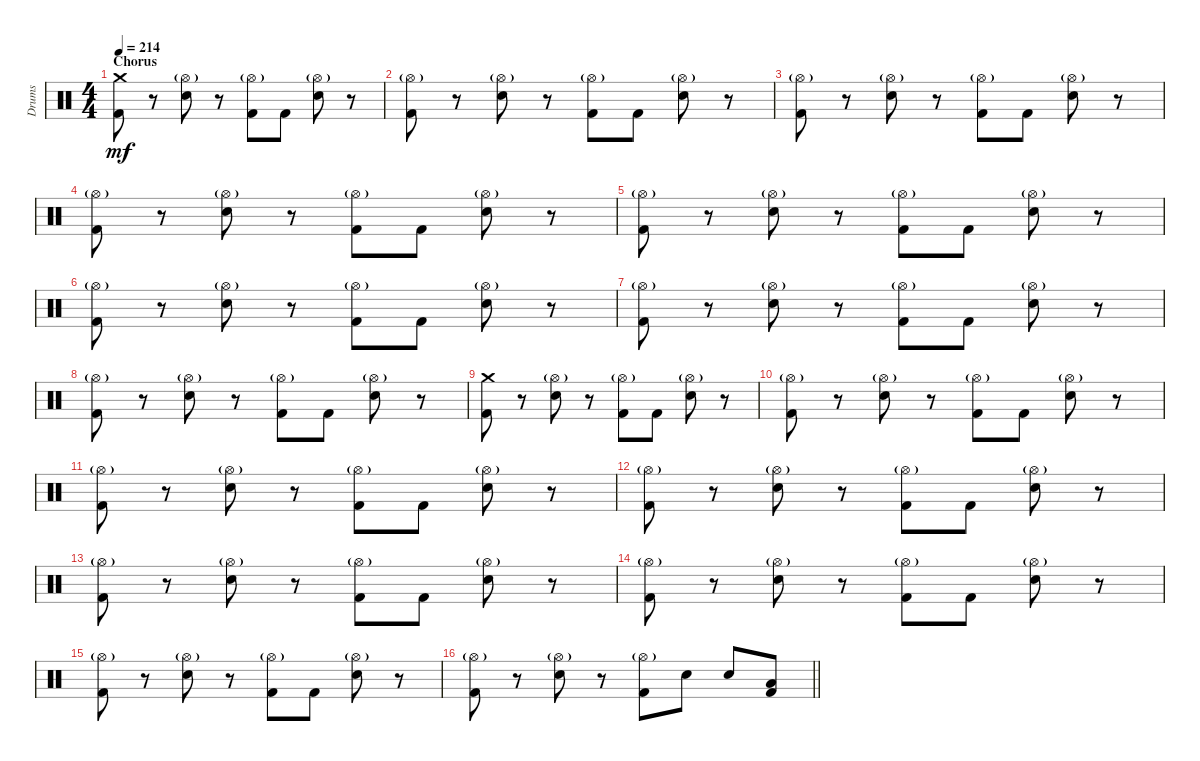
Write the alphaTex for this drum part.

\track ("Drums" "Drums") {instrument percussion}
\staff {score}
\articulation defaults
\ts (4 4)
\section ("" "Chorus")
\tempo 214
\clef neutral
\ks c
("Crash medium (hit)" "Kick (hit) 2").8{dy mf} r.8 ("Hi-Hat (open)"{g} "Snare (hit) 2").8 r.8 ("Hi-Hat (open)"{g} "Kick (hit) 2").8 "Kick (hit) 2".8 ("Hi-Hat (open)"{g} "Snare (hit) 2").8 r.8 |
("Hi-Hat (open)"{g} "Kick (hit) 2").8 r.8 ("Hi-Hat (open)"{g} "Snare (hit) 2").8 r.8 ("Hi-Hat (open)"{g} "Kick (hit) 2").8 "Kick (hit) 2".8 ("Hi-Hat (open)"{g} "Snare (hit) 2").8 r.8 |
("Hi-Hat (open)"{g} "Kick (hit) 2").8 r.8 ("Hi-Hat (open)"{g} "Snare (hit) 2").8 r.8 ("Hi-Hat (open)"{g} "Kick (hit) 2").8 "Kick (hit) 2".8 ("Hi-Hat (open)"{g} "Snare (hit) 2").8 r.8 |
("Hi-Hat (open)"{g} "Kick (hit) 2").8 r.8 ("Hi-Hat (open)"{g} "Snare (hit) 2").8 r.8 ("Hi-Hat (open)"{g} "Kick (hit) 2").8 "Kick (hit) 2".8 ("Hi-Hat (open)"{g} "Snare (hit) 2").8 r.8 |
("Hi-Hat (open)"{g} "Kick (hit) 2").8 r.8 ("Hi-Hat (open)"{g} "Snare (hit) 2").8 r.8 ("Hi-Hat (open)"{g} "Kick (hit) 2").8 "Kick (hit) 2".8 ("Hi-Hat (open)"{g} "Snare (hit) 2").8 r.8 |
("Hi-Hat (open)"{g} "Kick (hit) 2").8 r.8 ("Hi-Hat (open)"{g} "Snare (hit) 2").8 r.8 ("Hi-Hat (open)"{g} "Kick (hit) 2").8 "Kick (hit) 2".8 ("Hi-Hat (open)"{g} "Snare (hit) 2").8 r.8 |
("Hi-Hat (open)"{g} "Kick (hit) 2").8 r.8 ("Hi-Hat (open)"{g} "Snare (hit) 2").8 r.8 ("Hi-Hat (open)"{g} "Kick (hit) 2").8 "Kick (hit) 2".8 ("Hi-Hat (open)"{g} "Snare (hit) 2").8 r.8 |
("Hi-Hat (open)"{g} "Kick (hit) 2").8 r.8 ("Hi-Hat (open)"{g} "Snare (hit) 2").8 r.8 ("Hi-Hat (open)"{g} "Kick (hit) 2").8 "Kick (hit) 2".8 ("Hi-Hat (open)"{g} "Snare (hit) 2").8 r.8 |
("Crash medium (hit)" "Kick (hit) 2").8 r.8 ("Hi-Hat (open)"{g} "Snare (hit) 2").8 r.8 ("Hi-Hat (open)"{g} "Kick (hit) 2").8 "Kick (hit) 2".8 ("Hi-Hat (open)"{g} "Snare (hit) 2").8 r.8 |
("Hi-Hat (open)"{g} "Kick (hit) 2").8 r.8 ("Hi-Hat (open)"{g} "Snare (hit) 2").8 r.8 ("Hi-Hat (open)"{g} "Kick (hit) 2").8 "Kick (hit) 2".8 ("Hi-Hat (open)"{g} "Snare (hit) 2").8 r.8 |
("Hi-Hat (open)"{g} "Kick (hit) 2").8 r.8 ("Hi-Hat (open)"{g} "Snare (hit) 2").8 r.8 ("Hi-Hat (open)"{g} "Kick (hit) 2").8 "Kick (hit) 2".8 ("Hi-Hat (open)"{g} "Snare (hit) 2").8 r.8 |
("Hi-Hat (open)"{g} "Kick (hit) 2").8 r.8 ("Hi-Hat (open)"{g} "Snare (hit) 2").8 r.8 ("Hi-Hat (open)"{g} "Kick (hit) 2").8 "Kick (hit) 2".8 ("Hi-Hat (open)"{g} "Snare (hit) 2").8 r.8 |
("Hi-Hat (open)"{g} "Kick (hit) 2").8 r.8 ("Hi-Hat (open)"{g} "Snare (hit) 2").8 r.8 ("Hi-Hat (open)"{g} "Kick (hit) 2").8 "Kick (hit) 2".8 ("Hi-Hat (open)"{g} "Snare (hit) 2").8 r.8 |
("Hi-Hat (open)"{g} "Kick (hit) 2").8 r.8 ("Hi-Hat (open)"{g} "Snare (hit) 2").8 r.8 ("Hi-Hat (open)"{g} "Kick (hit) 2").8 "Kick (hit) 2".8 ("Hi-Hat (open)"{g} "Snare (hit) 2").8 r.8 |
("Hi-Hat (open)"{g} "Kick (hit) 2").8 r.8 ("Hi-Hat (open)"{g} "Snare (hit) 2").8 r.8 ("Hi-Hat (open)"{g} "Kick (hit) 2").8 "Kick (hit) 2".8 ("Hi-Hat (open)"{g} "Snare (hit) 2").8 r.8 |
\barLineRight lightlight
("Hi-Hat (open)"{g} "Kick (hit) 2").8 r.8 ("Hi-Hat (open)"{g} "Snare (hit) 2").8 r.8 ("Hi-Hat (open)"{g} "Kick (hit) 2").8 "Snare (hit) 2".8 "Snare (hit) 2".8 ("Low Floor Tom (hit)" "Kick (hit) 2").8
